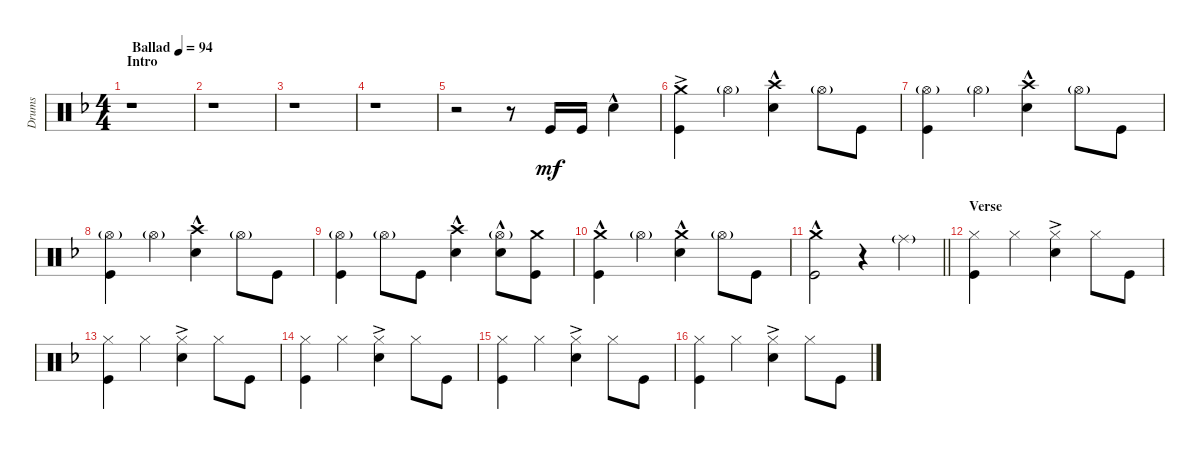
\track ("Drums" "Drums") {instrument percussion}
\staff {score}
\articulation defaults
\ts (4 4)
\section ("" "Intro")
\tempo (94 "Ballad")
\clef neutral
\ks dminor
r.1{dy mf} |
r.1 |
r.1 |
r.1 |
r.2 r.8 "Kick (hit)".16 "Kick (hit)".16 "Snare (hit) 2"{hac}.4 |
("Kick (hit)" "Crash medium (hit)"{ac}).4 "Hi-Hat (open)"{g}.4 ("Snare (hit) 2"{hac} "Crash high (hit)").4 "Hi-Hat (open)"{g}.8 "Kick (hit)".8 |
("Kick (hit)" "Hi-Hat (open)"{g}).4 "Hi-Hat (open)"{g}.4 ("Snare (hit) 2"{hac} "Crash high (hit)").4 "Hi-Hat (open)"{g}.8 "Kick (hit)".8 |
("Kick (hit)" "Hi-Hat (open)"{g}).4 "Hi-Hat (open)"{g}.4 ("Snare (hit) 2"{hac} "Crash high (hit)").4 "Hi-Hat (open)"{g}.8 "Kick (hit)".8 |
("Kick (hit)" "Hi-Hat (open)"{g}).4 "Hi-Hat (open)"{g}.8 "Kick (hit)".8 ("Snare (hit) 2"{hac} "Crash high (hit)").4 ("Hi-Hat (open)"{g} "Snare (hit) 2"{hac}).8 ("Kick (hit)" "Crash medium (hit)").8 |
("Kick (hit)" "Crash medium (hit)"{hac}).4 "Hi-Hat (open)"{g}.4 ("Snare (hit) 2"{hac} "Crash medium (hit)").4 "Hi-Hat (open)"{g}.8 "Kick (hit)".8 |
\barLineRight lightlight
("Kick (hit)" "Crash medium (hit)"{hac}).2 r.4 "Ride (middle)"{g}.4 |
\section ("" "Verse")
("Hi-Hat (closed)" "Kick (hit)").4 "Hi-Hat (closed)".4 ("Hi-Hat (closed)" "Snare (hit) 2"{ac}).4 "Hi-Hat (closed)".8 "Kick (hit)".8 |
("Hi-Hat (closed)" "Kick (hit)").4 "Hi-Hat (closed)".4 ("Hi-Hat (closed)" "Snare (hit) 2"{ac}).4 "Hi-Hat (closed)".8 "Kick (hit)".8 |
("Hi-Hat (closed)" "Kick (hit)").4 "Hi-Hat (closed)".4 ("Hi-Hat (closed)" "Snare (hit) 2"{ac}).4 "Hi-Hat (closed)".8 "Kick (hit)".8 |
("Hi-Hat (closed)" "Kick (hit)").4 "Hi-Hat (closed)".4 ("Hi-Hat (closed)" "Snare (hit) 2"{ac}).4 "Hi-Hat (closed)".8 "Kick (hit)".8 |
("Hi-Hat (closed)" "Kick (hit)").4 "Hi-Hat (closed)".4 ("Hi-Hat (closed)" "Snare (hit) 2"{ac}).4 "Hi-Hat (closed)".8 "Kick (hit)".8
